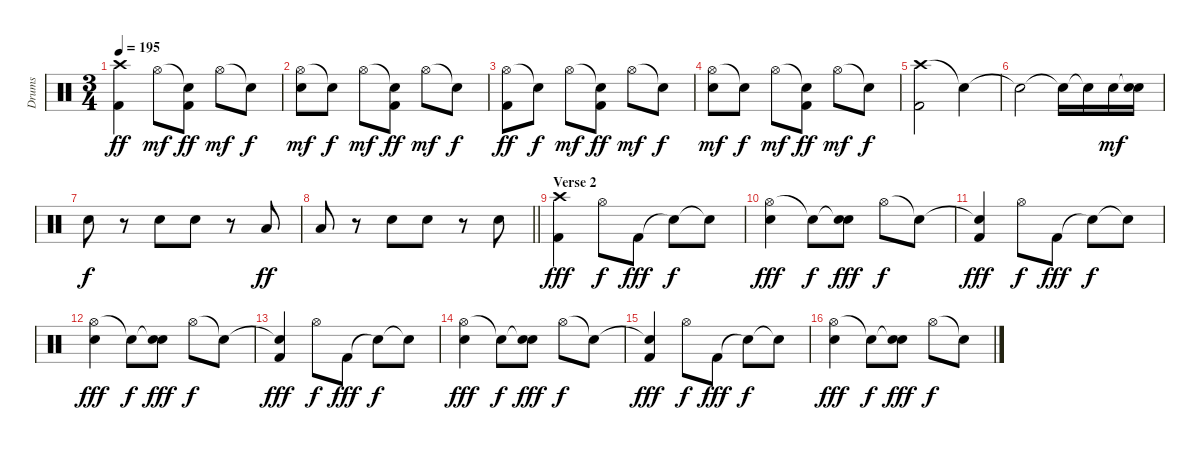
\track ("Drums" "Drums") {instrument percussion}
\staff {score}
\articulation defaults
\ts (3 4)
\tempo 195
\clef neutral
\ks c
("Crash high (hit)" "Kick (hit) 2").4{dy ff} "Hi-Hat (open)".8{dy mf} ("Snare (hit)"{t} "Kick (hit) 2").8{dy ff} "Hi-Hat (open)".8{dy mf} "Snare (hit)"{t}.8{dy f} |
("Hi-Hat (open)" "Electric Snare (hit)").8{dy mf} "Snare (hit)"{t}.8{dy f} "Hi-Hat (open)".8{dy mf} ("Snare (hit)"{t} "Kick (hit) 2").8{dy ff} "Hi-Hat (open)".8{dy mf} "Snare (hit)"{t}.8{dy f} |
("Hi-Hat (open)" "Kick (hit) 2").8{dy ff} "Snare (hit)"{t}.8{dy f} "Hi-Hat (open)".8{dy mf} ("Snare (hit)"{t} "Kick (hit) 2").8{dy ff} "Hi-Hat (open)".8{dy mf} "Snare (hit)"{t}.8{dy f} |
("Hi-Hat (open)" "Electric Snare (hit)").8{dy mf} "Snare (hit)"{t}.8{dy f} "Hi-Hat (open)".8{dy mf} ("Snare (hit)"{t} "Kick (hit) 2").8{dy ff} "Hi-Hat (open)".8{dy mf} "Snare (hit)"{t}.8{dy f} |
("Crash high (hit)" "Kick (hit) 2").2 "Snare (hit)"{t}.4 |
"Snare (hit)"{t}.2 "Snare (hit)"{t}.16 "Snare (hit)"{t}.16 "Electric Snare (hit)".16{dy mf} ("Snare (hit)"{t} "Electric Snare (hit)").16 |
"Electric Snare (hit)".8{dy f} r.8 "Electric Snare (hit)".8 "Electric Snare (hit)".8 r.8 "Low Tom (hit)".8{dy ff} |
\barLineRight lightlight "Low Tom (hit)".8
r.8 "Electric Snare (hit)".8 "Electric Snare (hit)".8 r.8 "Electric Snare (hit)".8 |
\section ("" "Verse 2")
("Crash high (hit)" "Kick (hit) 2").4{dy fff} "Hi-Hat (open)".8{dy f} "Kick (hit) 2".8{dy fff} "Snare (hit)"{t}.8{dy f} "Snare (hit)"{t}.8 |
("Hi-Hat (open)" "Electric Snare (hit)").4{dy fff} "Electric Snare (hit)"{t}.8{dy f} ("Snare (hit)"{t} "Electric Snare (hit)").8{dy fff} "Hi-Hat (open)".8{dy f} "Snare (hit)"{t}.8 |
("Snare (hit)"{t} "Kick (hit) 2").4{dy fff} "Hi-Hat (open)".8{dy f} "Kick (hit) 2".8{dy fff} "Snare (hit)"{t}.8{dy f} "Snare (hit)"{t}.8 |
("Hi-Hat (open)" "Electric Snare (hit)").4{dy fff} "Electric Snare (hit)"{t}.8{dy f} ("Snare (hit)"{t} "Electric Snare (hit)").8{dy fff} "Hi-Hat (open)".8{dy f} "Snare (hit)"{t}.8 |
("Snare (hit)"{t} "Kick (hit) 2").4{dy fff} "Hi-Hat (open)".8{dy f} "Kick (hit) 2".8{dy fff} "Snare (hit)"{t}.8{dy f} "Snare (hit)"{t}.8 |
("Hi-Hat (open)" "Electric Snare (hit)").4{dy fff} "Electric Snare (hit)"{t}.8{dy f} ("Snare (hit)"{t} "Electric Snare (hit)").8{dy fff} "Hi-Hat (open)".8{dy f} "Snare (hit)"{t}.8 |
("Snare (hit)"{t} "Kick (hit) 2").4{dy fff} "Hi-Hat (open)".8{dy f} "Kick (hit) 2".8{dy fff} "Snare (hit)"{t}.8{dy f} "Snare (hit)"{t}.8 |
("Hi-Hat (open)" "Electric Snare (hit)").4{dy fff} "Electric Snare (hit)"{t}.8{dy f} ("Snare (hit)"{t} "Electric Snare (hit)").8{dy fff} "Hi-Hat (open)".8{dy f} "Snare (hit)"{t}.8
